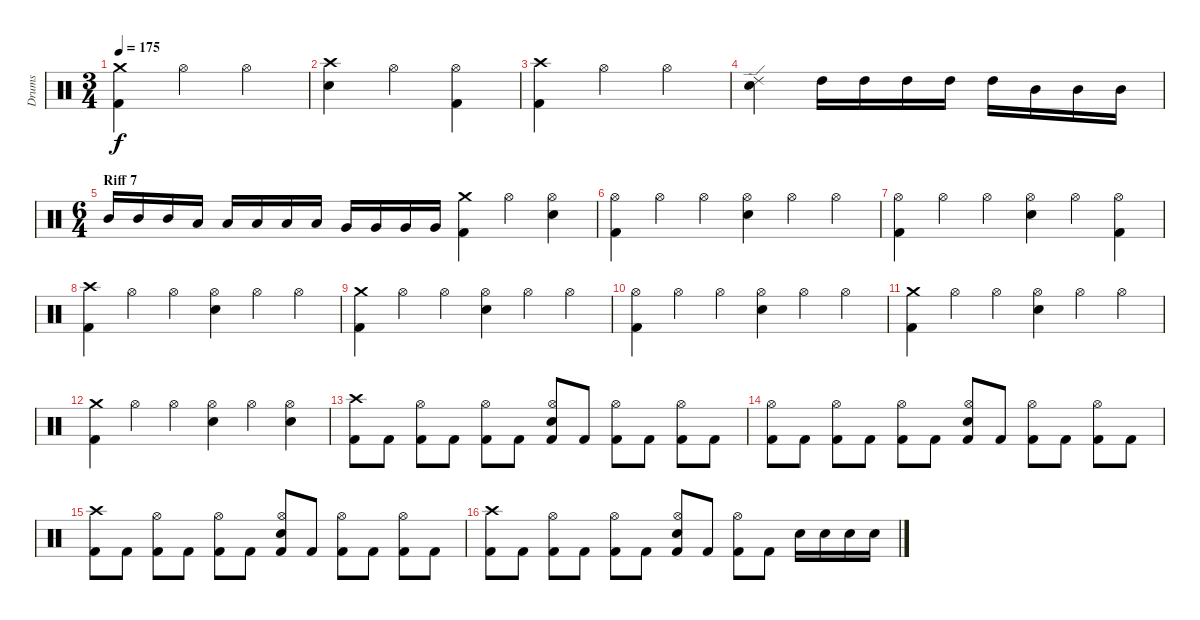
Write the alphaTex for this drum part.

\track ("Drums" "Drums") {instrument percussion}
\staff {score}
\articulation defaults
\ts (3 4)
\tempo 175
\clef neutral
\ks c
("Crash medium (hit)" "Kick (hit) 2").4{dy f} "Hi-Hat (open)".4 "Hi-Hat (open)".4 |
("Crash high (hit)" "Electric Snare (hit)").4 "Hi-Hat (open)".4 ("Hi-Hat (open)" "Kick (hit) 2").4 |
("Crash high (hit)" "Kick (hit) 2").4 "Hi-Hat (open)".4 "Hi-Hat (open)".4 |
("Ride (edge) 2" "Electric Snare (hit)").4 "High Tom (hit)".16 "High Tom (hit)".16 "High Tom (hit)".16 "High Tom (hit)".16 "High Tom (hit)".16 "Mid Tom (hit)".16 "Mid Tom (hit)".16 "Mid Tom (hit)".16 |
\ts (6 4)
\section ("" "Riff 7")
"Mid Tom (hit)".16 "Mid Tom (hit)".16 "Mid Tom (hit)".16 "Low Tom (hit)".16 "Low Tom (hit)".16 "Low Tom (hit)".16 "Low Tom (hit)".16 "Low Tom (hit)".16 "Very Low Tom (hit)".16 "Very Low Tom (hit)".16 "Very Low Tom (hit)".16 "Very Low Tom (hit)".16 ("Crash medium (hit)" "Kick (hit) 2").4 "Hi-Hat (open)".4 ("Hi-Hat (open)" "Electric Snare (hit)").4 |
("Hi-Hat (open)" "Kick (hit) 2").4 "Hi-Hat (open)".4 "Hi-Hat (open)".4 ("Hi-Hat (open)" "Electric Snare (hit)").4 "Hi-Hat (open)".4 "Hi-Hat (open)".4 |
("Hi-Hat (open)" "Kick (hit) 2").4 "Hi-Hat (open)".4 "Hi-Hat (open)".4 ("Hi-Hat (open)" "Electric Snare (hit)").4 "Hi-Hat (open)".4 ("Hi-Hat (open)" "Kick (hit) 2").4 |
("Crash high (hit)" "Kick (hit) 2").4 "Hi-Hat (open)".4 "Hi-Hat (open)".4 ("Hi-Hat (open)" "Electric Snare (hit)").4 "Hi-Hat (open)".4 "Hi-Hat (open)".4 |
("Crash medium (hit)" "Kick (hit) 2").4 "Hi-Hat (open)".4 "Hi-Hat (open)".4 ("Hi-Hat (open)" "Electric Snare (hit)").4 "Hi-Hat (open)".4 "Hi-Hat (open)".4 |
("Hi-Hat (open)" "Kick (hit) 2").4 "Hi-Hat (open)".4 "Hi-Hat (open)".4 ("Hi-Hat (open)" "Electric Snare (hit)").4 "Hi-Hat (open)".4 "Hi-Hat (open)".4 |
("Crash medium (hit)" "Kick (hit) 2").4 "Hi-Hat (open)".4 "Hi-Hat (open)".4 ("Hi-Hat (open)" "Electric Snare (hit)").4 "Hi-Hat (open)".4 "Hi-Hat (open)".4 |
("Crash medium (hit)" "Kick (hit) 2").4 "Hi-Hat (open)".4 "Hi-Hat (open)".4 ("Hi-Hat (open)" "Electric Snare (hit)").4 "Hi-Hat (open)".4 ("Hi-Hat (open)" "Electric Snare (hit)").4 |
("Crash high (hit)" "Kick (hit) 2").8 "Kick (hit) 2".8 ("Hi-Hat (open)" "Kick (hit) 2").8 "Kick (hit) 2".8 ("Hi-Hat (open)" "Kick (hit) 2").8 "Kick (hit) 2".8 ("Hi-Hat (open)" "Electric Snare (hit)" "Kick (hit) 2").8 "Kick (hit) 2".8 ("Hi-Hat (open)" "Kick (hit) 2").8 "Kick (hit) 2".8 ("Hi-Hat (open)" "Kick (hit) 2").8 "Kick (hit) 2".8 |
("Hi-Hat (open)" "Kick (hit) 2").8 "Kick (hit) 2".8 ("Hi-Hat (open)" "Kick (hit) 2").8 "Kick (hit) 2".8 ("Hi-Hat (open)" "Kick (hit) 2").8 "Kick (hit) 2".8 ("Hi-Hat (open)" "Electric Snare (hit)" "Kick (hit) 2").8 "Kick (hit) 2".8 ("Hi-Hat (open)" "Kick (hit) 2").8 "Kick (hit) 2".8 ("Hi-Hat (open)" "Kick (hit) 2").8 "Kick (hit) 2".8 |
("Crash high (hit)" "Kick (hit) 2").8 "Kick (hit) 2".8 ("Hi-Hat (open)" "Kick (hit) 2").8 "Kick (hit) 2".8 ("Hi-Hat (open)" "Kick (hit) 2").8 "Kick (hit) 2".8 ("Hi-Hat (open)" "Electric Snare (hit)" "Kick (hit) 2").8 "Kick (hit) 2".8 ("Hi-Hat (open)" "Kick (hit) 2").8 "Kick (hit) 2".8 ("Hi-Hat (open)" "Kick (hit) 2").8 "Kick (hit) 2".8 |
("Crash high (hit)" "Kick (hit) 2").8 "Kick (hit) 2".8 ("Hi-Hat (open)" "Kick (hit) 2").8 "Kick (hit) 2".8 ("Hi-Hat (open)" "Kick (hit) 2").8 "Kick (hit) 2".8 ("Hi-Hat (open)" "Electric Snare (hit)" "Kick (hit) 2").8 "Kick (hit) 2".8 ("Hi-Hat (open)" "Kick (hit) 2").8 "Kick (hit) 2".8 "Electric Snare (hit)".16 "Electric Snare (hit)".16 "Electric Snare (hit)".16 "Electric Snare (hit)".16
